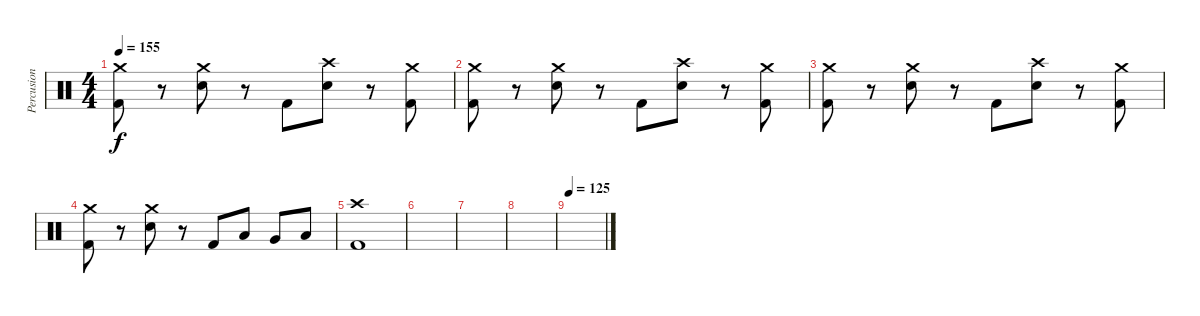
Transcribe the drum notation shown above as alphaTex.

\track ("Percusion" "Percusion") {instrument percussion}
\staff {score}
\articulation defaults
\ts (4 4)
\tempo 155
\clef neutral
\ks c
("Crash medium (hit)" "Kick (hit) 2").8{dy f} r.8 ("Crash medium (hit)" "Electric Snare (hit)").8 r.8 "Kick (hit) 2".8 ("Crash high (hit)" "Electric Snare (hit)").8 r.8 ("Crash medium (hit)" "Kick (hit) 2").8 |
("Crash medium (hit)" "Kick (hit) 2").8 r.8 ("Crash medium (hit)" "Electric Snare (hit)").8 r.8 "Kick (hit) 2".8 ("Crash high (hit)" "Electric Snare (hit)").8 r.8 ("Crash medium (hit)" "Kick (hit) 2").8 |
("Crash medium (hit)" "Kick (hit) 2").8 r.8 ("Crash medium (hit)" "Electric Snare (hit)").8 r.8 "Kick (hit) 2".8 ("Crash high (hit)" "Electric Snare (hit)").8 r.8 ("Crash medium (hit)" "Kick (hit) 2").8 |
("Crash medium (hit)" "Kick (hit) 2").8 r.8 ("Crash medium (hit)" "Electric Snare (hit)").8 r.8 "Kick (hit) 2".8 "Low Tom (hit)".8 "Very Low Tom (hit)".8 "Low Tom (hit)".8 |
("Crash high (hit)" "Kick (hit) 2").1 |
|
|
|
\tempo 125
